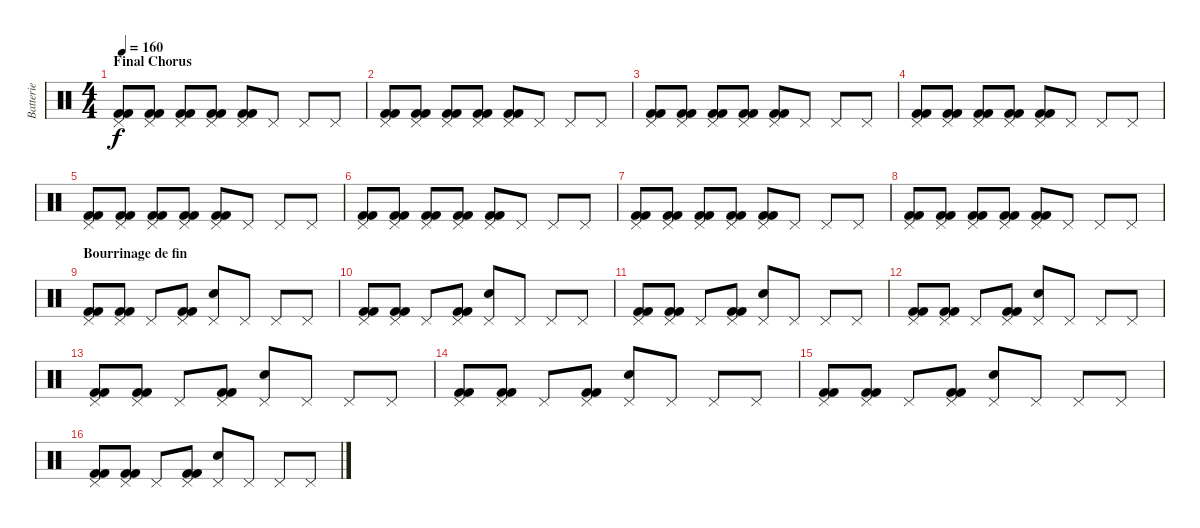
\track ("Batterie" "Batterie") {instrument percussion}
\staff {score}
\articulation defaults
\ts (4 4)
\section ("" "Final Chorus")
\tempo 160
\clef neutral
\ks c
("Pedal Hi-Hat (hit)" "Kick (hit) 2" "Kick (hit) 2").8{dy f} ("Pedal Hi-Hat (hit)" "Kick (hit) 2" "Kick (hit) 2").8 ("Pedal Hi-Hat (hit)" "Kick (hit) 2" "Kick (hit) 2").8 ("Pedal Hi-Hat (hit)" "Kick (hit) 2" "Kick (hit) 2").8 ("Pedal Hi-Hat (hit)" "Kick (hit) 2" "Kick (hit) 2").8 "Pedal Hi-Hat (hit)".8 "Pedal Hi-Hat (hit)".8 "Pedal Hi-Hat (hit)".8 |
("Pedal Hi-Hat (hit)" "Kick (hit) 2" "Kick (hit) 2").8 ("Pedal Hi-Hat (hit)" "Kick (hit) 2" "Kick (hit) 2").8 ("Pedal Hi-Hat (hit)" "Kick (hit) 2" "Kick (hit) 2").8 ("Pedal Hi-Hat (hit)" "Kick (hit) 2" "Kick (hit) 2").8 ("Pedal Hi-Hat (hit)" "Kick (hit) 2" "Kick (hit) 2").8 "Pedal Hi-Hat (hit)".8 "Pedal Hi-Hat (hit)".8 "Pedal Hi-Hat (hit)".8 |
("Pedal Hi-Hat (hit)" "Kick (hit) 2" "Kick (hit) 2").8 ("Pedal Hi-Hat (hit)" "Kick (hit) 2" "Kick (hit) 2").8 ("Pedal Hi-Hat (hit)" "Kick (hit) 2" "Kick (hit) 2").8 ("Pedal Hi-Hat (hit)" "Kick (hit) 2" "Kick (hit) 2").8 ("Pedal Hi-Hat (hit)" "Kick (hit) 2" "Kick (hit) 2").8 "Pedal Hi-Hat (hit)".8 "Pedal Hi-Hat (hit)".8 "Pedal Hi-Hat (hit)".8 |
("Pedal Hi-Hat (hit)" "Kick (hit) 2" "Kick (hit) 2").8 ("Pedal Hi-Hat (hit)" "Kick (hit) 2" "Kick (hit) 2").8 ("Pedal Hi-Hat (hit)" "Kick (hit) 2" "Kick (hit) 2").8 ("Pedal Hi-Hat (hit)" "Kick (hit) 2" "Kick (hit) 2").8 ("Pedal Hi-Hat (hit)" "Kick (hit) 2" "Kick (hit) 2").8 "Pedal Hi-Hat (hit)".8 "Pedal Hi-Hat (hit)".8 "Pedal Hi-Hat (hit)".8 |
("Pedal Hi-Hat (hit)" "Kick (hit) 2" "Kick (hit) 2").8 ("Pedal Hi-Hat (hit)" "Kick (hit) 2" "Kick (hit) 2").8 ("Pedal Hi-Hat (hit)" "Kick (hit) 2" "Kick (hit) 2").8 ("Pedal Hi-Hat (hit)" "Kick (hit) 2" "Kick (hit) 2").8 ("Pedal Hi-Hat (hit)" "Kick (hit) 2" "Kick (hit) 2").8 "Pedal Hi-Hat (hit)".8 "Pedal Hi-Hat (hit)".8 "Pedal Hi-Hat (hit)".8 |
("Pedal Hi-Hat (hit)" "Kick (hit) 2" "Kick (hit) 2").8 ("Pedal Hi-Hat (hit)" "Kick (hit) 2" "Kick (hit) 2").8 ("Pedal Hi-Hat (hit)" "Kick (hit) 2" "Kick (hit) 2").8 ("Pedal Hi-Hat (hit)" "Kick (hit) 2" "Kick (hit) 2").8 ("Pedal Hi-Hat (hit)" "Kick (hit) 2" "Kick (hit) 2").8 "Pedal Hi-Hat (hit)".8 "Pedal Hi-Hat (hit)".8 "Pedal Hi-Hat (hit)".8 |
("Pedal Hi-Hat (hit)" "Kick (hit) 2" "Kick (hit) 2").8 ("Pedal Hi-Hat (hit)" "Kick (hit) 2" "Kick (hit) 2").8 ("Pedal Hi-Hat (hit)" "Kick (hit) 2" "Kick (hit) 2").8 ("Pedal Hi-Hat (hit)" "Kick (hit) 2" "Kick (hit) 2").8 ("Pedal Hi-Hat (hit)" "Kick (hit) 2" "Kick (hit) 2").8 "Pedal Hi-Hat (hit)".8 "Pedal Hi-Hat (hit)".8 "Pedal Hi-Hat (hit)".8 |
("Pedal Hi-Hat (hit)" "Kick (hit) 2" "Kick (hit) 2").8 ("Pedal Hi-Hat (hit)" "Kick (hit) 2" "Kick (hit) 2").8 ("Pedal Hi-Hat (hit)" "Kick (hit) 2" "Kick (hit) 2").8 ("Pedal Hi-Hat (hit)" "Kick (hit) 2" "Kick (hit) 2").8 ("Pedal Hi-Hat (hit)" "Kick (hit) 2" "Kick (hit) 2").8 "Pedal Hi-Hat (hit)".8 "Pedal Hi-Hat (hit)".8 "Pedal Hi-Hat (hit)".8 |
\section ("" "Bourrinage de fin")
("Pedal Hi-Hat (hit)" "Kick (hit) 2" "Kick (hit) 2").8 ("Pedal Hi-Hat (hit)" "Kick (hit) 2" "Kick (hit) 2").8 "Pedal Hi-Hat (hit)".8 ("Pedal Hi-Hat (hit)" "Kick (hit) 2" "Kick (hit) 2").8 ("Pedal Hi-Hat (hit)" "Electric Snare (hit)").8 "Pedal Hi-Hat (hit)".8 "Pedal Hi-Hat (hit)".8 "Pedal Hi-Hat (hit)".8 |
("Pedal Hi-Hat (hit)" "Kick (hit) 2" "Kick (hit) 2").8 ("Pedal Hi-Hat (hit)" "Kick (hit) 2" "Kick (hit) 2").8 "Pedal Hi-Hat (hit)".8 ("Pedal Hi-Hat (hit)" "Kick (hit) 2" "Kick (hit) 2").8 ("Pedal Hi-Hat (hit)" "Electric Snare (hit)").8 "Pedal Hi-Hat (hit)".8 "Pedal Hi-Hat (hit)".8 "Pedal Hi-Hat (hit)".8 |
("Pedal Hi-Hat (hit)" "Kick (hit) 2" "Kick (hit) 2").8 ("Pedal Hi-Hat (hit)" "Kick (hit) 2" "Kick (hit) 2").8 "Pedal Hi-Hat (hit)".8 ("Pedal Hi-Hat (hit)" "Kick (hit) 2" "Kick (hit) 2").8 ("Pedal Hi-Hat (hit)" "Electric Snare (hit)").8 "Pedal Hi-Hat (hit)".8 "Pedal Hi-Hat (hit)".8 "Pedal Hi-Hat (hit)".8 |
("Pedal Hi-Hat (hit)" "Kick (hit) 2" "Kick (hit) 2").8 ("Pedal Hi-Hat (hit)" "Kick (hit) 2" "Kick (hit) 2").8 "Pedal Hi-Hat (hit)".8 ("Pedal Hi-Hat (hit)" "Kick (hit) 2" "Kick (hit) 2").8 ("Pedal Hi-Hat (hit)" "Electric Snare (hit)").8 "Pedal Hi-Hat (hit)".8 "Pedal Hi-Hat (hit)".8 "Pedal Hi-Hat (hit)".8 |
("Pedal Hi-Hat (hit)" "Kick (hit) 2" "Kick (hit) 2").8 ("Pedal Hi-Hat (hit)" "Kick (hit) 2" "Kick (hit) 2").8 "Pedal Hi-Hat (hit)".8 ("Pedal Hi-Hat (hit)" "Kick (hit) 2" "Kick (hit) 2").8 ("Pedal Hi-Hat (hit)" "Electric Snare (hit)").8 "Pedal Hi-Hat (hit)".8 "Pedal Hi-Hat (hit)".8 "Pedal Hi-Hat (hit)".8 |
("Pedal Hi-Hat (hit)" "Kick (hit) 2" "Kick (hit) 2").8 ("Pedal Hi-Hat (hit)" "Kick (hit) 2" "Kick (hit) 2").8 "Pedal Hi-Hat (hit)".8 ("Pedal Hi-Hat (hit)" "Kick (hit) 2" "Kick (hit) 2").8 ("Pedal Hi-Hat (hit)" "Electric Snare (hit)").8 "Pedal Hi-Hat (hit)".8 "Pedal Hi-Hat (hit)".8 "Pedal Hi-Hat (hit)".8 |
("Pedal Hi-Hat (hit)" "Kick (hit) 2" "Kick (hit) 2").8 ("Pedal Hi-Hat (hit)" "Kick (hit) 2" "Kick (hit) 2").8 "Pedal Hi-Hat (hit)".8 ("Pedal Hi-Hat (hit)" "Kick (hit) 2" "Kick (hit) 2").8 ("Pedal Hi-Hat (hit)" "Electric Snare (hit)").8 "Pedal Hi-Hat (hit)".8 "Pedal Hi-Hat (hit)".8 "Pedal Hi-Hat (hit)".8 |
("Pedal Hi-Hat (hit)" "Kick (hit) 2" "Kick (hit) 2").8 ("Pedal Hi-Hat (hit)" "Kick (hit) 2" "Kick (hit) 2").8 "Pedal Hi-Hat (hit)".8 ("Pedal Hi-Hat (hit)" "Kick (hit) 2" "Kick (hit) 2").8 ("Pedal Hi-Hat (hit)" "Electric Snare (hit)").8 "Pedal Hi-Hat (hit)".8 "Pedal Hi-Hat (hit)".8 "Pedal Hi-Hat (hit)".8
